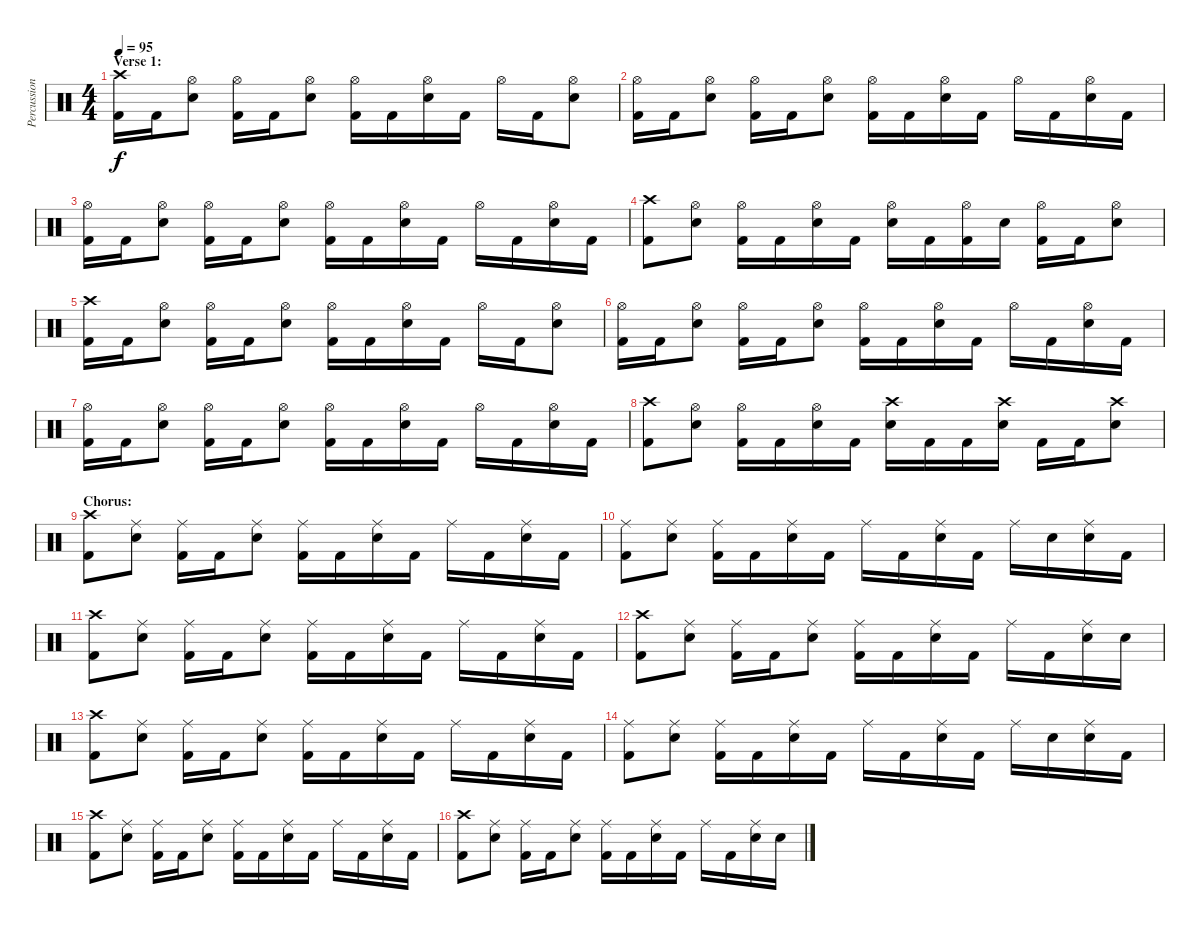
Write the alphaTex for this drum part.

\track ("Percussion" "Percussion") {instrument percussion}
\staff {score}
\articulation defaults
\ts (4 4)
\section ("" "Verse 1:")
\tempo 95
\clef neutral
\ks c
("Crash high (hit)" "Kick (hit) 2").16{dy f} "Kick (hit) 2".16 ("Hi-Hat (open)" "Electric Snare (hit)").8 ("Hi-Hat (open)" "Kick (hit) 2").16 "Kick (hit) 2".16 ("Hi-Hat (open)" "Electric Snare (hit)").8 ("Hi-Hat (open)" "Kick (hit) 2").16 "Kick (hit) 2".16 ("Hi-Hat (open)" "Electric Snare (hit)").16 "Kick (hit) 2".16 "Hi-Hat (open)".16 "Kick (hit) 2".16 ("Hi-Hat (open)" "Electric Snare (hit)").8 |
("Hi-Hat (open)" "Kick (hit) 2").16 "Kick (hit) 2".16 ("Hi-Hat (open)" "Electric Snare (hit)").8 ("Hi-Hat (open)" "Kick (hit) 2").16 "Kick (hit) 2".16 ("Hi-Hat (open)" "Electric Snare (hit)").8 ("Hi-Hat (open)" "Kick (hit) 2").16 "Kick (hit) 2".16 ("Hi-Hat (open)" "Electric Snare (hit)").16 "Kick (hit) 2".16 "Hi-Hat (open)".16 "Kick (hit) 2".16 ("Hi-Hat (open)" "Electric Snare (hit)").16 "Kick (hit) 2".16 |
("Hi-Hat (open)" "Kick (hit) 2").16 "Kick (hit) 2".16 ("Hi-Hat (open)" "Electric Snare (hit)").8 ("Hi-Hat (open)" "Kick (hit) 2").16 "Kick (hit) 2".16 ("Hi-Hat (open)" "Electric Snare (hit)").8 ("Hi-Hat (open)" "Kick (hit) 2").16 "Kick (hit) 2".16 ("Hi-Hat (open)" "Electric Snare (hit)").16 "Kick (hit) 2".16 "Hi-Hat (open)".16 "Kick (hit) 2".16 ("Hi-Hat (open)" "Electric Snare (hit)").16 "Kick (hit) 2".16 |
("Crash high (hit)" "Kick (hit) 2").8 ("Hi-Hat (open)" "Electric Snare (hit)").8 ("Hi-Hat (open)" "Kick (hit) 2").16 "Kick (hit) 2".16 ("Hi-Hat (open)" "Electric Snare (hit)").16 "Kick (hit) 2".16 ("Hi-Hat (open)" "Electric Snare (hit)").16 "Kick (hit) 2".16 ("Hi-Hat (open)" "Kick (hit) 2").16 "Electric Snare (hit)".16 ("Hi-Hat (open)" "Kick (hit) 2").16 "Kick (hit) 2".16 ("Hi-Hat (open)" "Electric Snare (hit)").8 |
("Crash high (hit)" "Kick (hit) 2").16 "Kick (hit) 2".16 ("Hi-Hat (open)" "Electric Snare (hit)").8 ("Hi-Hat (open)" "Kick (hit) 2").16 "Kick (hit) 2".16 ("Hi-Hat (open)" "Electric Snare (hit)").8 ("Hi-Hat (open)" "Kick (hit) 2").16 "Kick (hit) 2".16 ("Hi-Hat (open)" "Electric Snare (hit)").16 "Kick (hit) 2".16 "Hi-Hat (open)".16 "Kick (hit) 2".16 ("Hi-Hat (open)" "Electric Snare (hit)").8 |
("Hi-Hat (open)" "Kick (hit) 2").16 "Kick (hit) 2".16 ("Hi-Hat (open)" "Electric Snare (hit)").8 ("Hi-Hat (open)" "Kick (hit) 2").16 "Kick (hit) 2".16 ("Hi-Hat (open)" "Electric Snare (hit)").8 ("Hi-Hat (open)" "Kick (hit) 2").16 "Kick (hit) 2".16 ("Hi-Hat (open)" "Electric Snare (hit)").16 "Kick (hit) 2".16 "Hi-Hat (open)".16 "Kick (hit) 2".16 ("Hi-Hat (open)" "Electric Snare (hit)").16 "Kick (hit) 2".16 |
("Hi-Hat (open)" "Kick (hit) 2").16 "Kick (hit) 2".16 ("Hi-Hat (open)" "Electric Snare (hit)").8 ("Hi-Hat (open)" "Kick (hit) 2").16 "Kick (hit) 2".16 ("Hi-Hat (open)" "Electric Snare (hit)").8 ("Hi-Hat (open)" "Kick (hit) 2").16 "Kick (hit) 2".16 ("Hi-Hat (open)" "Electric Snare (hit)").16 "Kick (hit) 2".16 "Hi-Hat (open)".16 "Kick (hit) 2".16 ("Hi-Hat (open)" "Electric Snare (hit)").16 "Kick (hit) 2".16 |
("Crash high (hit)" "Kick (hit) 2").8 ("Hi-Hat (open)" "Electric Snare (hit)").8 ("Hi-Hat (open)" "Kick (hit) 2").16 "Kick (hit) 2".16 ("Hi-Hat (open)" "Electric Snare (hit)").16 "Kick (hit) 2".16 ("Crash high (hit)" "Electric Snare (hit)").16 "Kick (hit) 2".16 "Kick (hit) 2".16 ("Crash high (hit)" "Electric Snare (hit)").16 "Kick (hit) 2".16 "Kick (hit) 2".16 ("Crash high (hit)" "Electric Snare (hit)").8 |
\section ("" "Chorus:")
("Crash high (hit)" "Kick (hit) 2").8 ("Ride (middle)" "Electric Snare (hit)").8 ("Ride (middle)" "Kick (hit) 2").16 "Kick (hit) 2".16 ("Ride (middle)" "Electric Snare (hit)").8 ("Ride (middle)" "Kick (hit) 2").16 "Kick (hit) 2".16 ("Ride (middle)" "Electric Snare (hit)").16 "Kick (hit) 2".16 "Ride (middle)".16 "Kick (hit) 2".16 ("Ride (middle)" "Electric Snare (hit)").16 "Kick (hit) 2".16 |
("Ride (middle)" "Kick (hit) 2").8 ("Ride (middle)" "Electric Snare (hit)").8 ("Ride (middle)" "Kick (hit) 2").16 "Kick (hit) 2".16 ("Ride (middle)" "Electric Snare (hit)").16 "Kick (hit) 2".16 "Ride (middle)".16 "Kick (hit) 2".16 ("Ride (middle)" "Electric Snare (hit)").16 "Kick (hit) 2".16 "Ride (middle)".16 "Electric Snare (hit)".16 ("Ride (middle)" "Electric Snare (hit)").16 "Kick (hit) 2".16 |
("Crash high (hit)" "Kick (hit) 2").8 ("Ride (middle)" "Electric Snare (hit)").8 ("Ride (middle)" "Kick (hit) 2").16 "Kick (hit) 2".16 ("Ride (middle)" "Electric Snare (hit)").8 ("Ride (middle)" "Kick (hit) 2").16 "Kick (hit) 2".16 ("Ride (middle)" "Electric Snare (hit)").16 "Kick (hit) 2".16 "Ride (middle)".16 "Kick (hit) 2".16 ("Ride (middle)" "Electric Snare (hit)").16 "Kick (hit) 2".16 |
("Crash high (hit)" "Kick (hit) 2").8 ("Ride (middle)" "Electric Snare (hit)").8 ("Ride (middle)" "Kick (hit) 2").16 "Kick (hit) 2".16 ("Ride (middle)" "Electric Snare (hit)").8 ("Ride (middle)" "Kick (hit) 2").16 "Kick (hit) 2".16 ("Ride (middle)" "Electric Snare (hit)").16 "Kick (hit) 2".16 "Ride (middle)".16 "Kick (hit) 2".16 ("Ride (middle)" "Electric Snare (hit)").16 "Electric Snare (hit)".16 |
("Crash high (hit)" "Kick (hit) 2").8 ("Ride (middle)" "Electric Snare (hit)").8 ("Ride (middle)" "Kick (hit) 2").16 "Kick (hit) 2".16 ("Ride (middle)" "Electric Snare (hit)").8 ("Ride (middle)" "Kick (hit) 2").16 "Kick (hit) 2".16 ("Ride (middle)" "Electric Snare (hit)").16 "Kick (hit) 2".16 "Ride (middle)".16 "Kick (hit) 2".16 ("Ride (middle)" "Electric Snare (hit)").16 "Kick (hit) 2".16 |
("Ride (middle)" "Kick (hit) 2").8 ("Ride (middle)" "Electric Snare (hit)").8 ("Ride (middle)" "Kick (hit) 2").16 "Kick (hit) 2".16 ("Ride (middle)" "Electric Snare (hit)").16 "Kick (hit) 2".16 "Ride (middle)".16 "Kick (hit) 2".16 ("Ride (middle)" "Electric Snare (hit)").16 "Kick (hit) 2".16 "Ride (middle)".16 "Electric Snare (hit)".16 ("Ride (middle)" "Electric Snare (hit)").16 "Kick (hit) 2".16 |
("Crash high (hit)" "Kick (hit) 2").8 ("Ride (middle)" "Electric Snare (hit)").8 ("Ride (middle)" "Kick (hit) 2").16 "Kick (hit) 2".16 ("Ride (middle)" "Electric Snare (hit)").8 ("Ride (middle)" "Kick (hit) 2").16 "Kick (hit) 2".16 ("Ride (middle)" "Electric Snare (hit)").16 "Kick (hit) 2".16 "Ride (middle)".16 "Kick (hit) 2".16 ("Ride (middle)" "Electric Snare (hit)").16 "Kick (hit) 2".16 |
("Crash high (hit)" "Kick (hit) 2").8 ("Ride (middle)" "Electric Snare (hit)").8 ("Ride (middle)" "Kick (hit) 2").16 "Kick (hit) 2".16 ("Ride (middle)" "Electric Snare (hit)").8 ("Ride (middle)" "Kick (hit) 2").16 "Kick (hit) 2".16 ("Ride (middle)" "Electric Snare (hit)").16 "Kick (hit) 2".16 "Ride (middle)".16 "Kick (hit) 2".16 ("Ride (middle)" "Electric Snare (hit)").16 "Electric Snare (hit)".16
